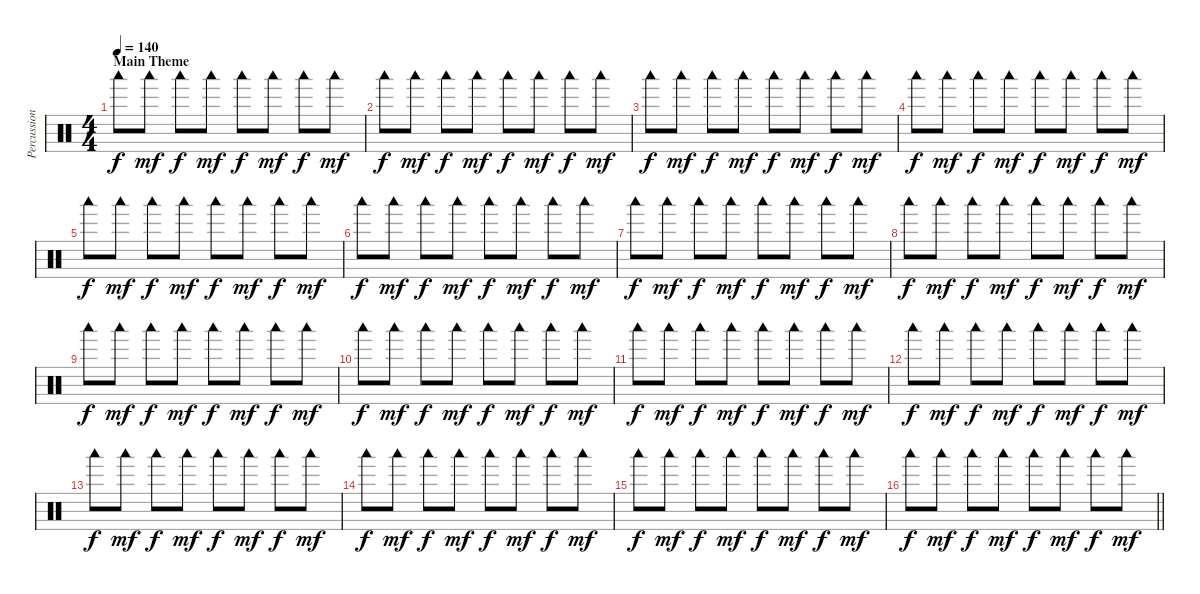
\track ("Percussions" "Percussion") {instrument percussion}
\staff {score}
\articulation defaults
\ts (4 4)
\section ("" "Main Theme")
\tempo 140
\clef neutral
\ks c "Woodblock low (hit)".8{dy f volume 10} "Woodblock low (hit)".8{dy mf} "Woodblock low (hit)".8{dy f} "Woodblock low (hit)".8{dy mf} "Woodblock low (hit)".8{dy f} "Woodblock low (hit)".8{dy mf} "Woodblock low (hit)".8{dy f} "Woodblock low (hit)".8{dy mf}
|
"Woodblock low (hit)".8{dy f} "Woodblock low (hit)".8{dy mf} "Woodblock low (hit)".8{dy f} "Woodblock low (hit)".8{dy mf} "Woodblock low (hit)".8{dy f} "Woodblock low (hit)".8{dy mf} "Woodblock low (hit)".8{dy f} "Woodblock low (hit)".8{dy mf} |
"Woodblock low (hit)".8{dy f} "Woodblock low (hit)".8{dy mf} "Woodblock low (hit)".8{dy f} "Woodblock low (hit)".8{dy mf} "Woodblock low (hit)".8{dy f} "Woodblock low (hit)".8{dy mf} "Woodblock low (hit)".8{dy f} "Woodblock low (hit)".8{dy mf} |
"Woodblock low (hit)".8{dy f} "Woodblock low (hit)".8{dy mf} "Woodblock low (hit)".8{dy f} "Woodblock low (hit)".8{dy mf} "Woodblock low (hit)".8{dy f} "Woodblock low (hit)".8{dy mf} "Woodblock low (hit)".8{dy f} "Woodblock low (hit)".8{dy mf} |
"Woodblock low (hit)".8{dy f} "Woodblock low (hit)".8{dy mf} "Woodblock low (hit)".8{dy f} "Woodblock low (hit)".8{dy mf} "Woodblock low (hit)".8{dy f} "Woodblock low (hit)".8{dy mf} "Woodblock low (hit)".8{dy f} "Woodblock low (hit)".8{dy mf} |
"Woodblock low (hit)".8{dy f} "Woodblock low (hit)".8{dy mf} "Woodblock low (hit)".8{dy f} "Woodblock low (hit)".8{dy mf} "Woodblock low (hit)".8{dy f} "Woodblock low (hit)".8{dy mf} "Woodblock low (hit)".8{dy f} "Woodblock low (hit)".8{dy mf} |
"Woodblock low (hit)".8{dy f} "Woodblock low (hit)".8{dy mf} "Woodblock low (hit)".8{dy f} "Woodblock low (hit)".8{dy mf} "Woodblock low (hit)".8{dy f} "Woodblock low (hit)".8{dy mf} "Woodblock low (hit)".8{dy f} "Woodblock low (hit)".8{dy mf} |
"Woodblock low (hit)".8{dy f} "Woodblock low (hit)".8{dy mf} "Woodblock low (hit)".8{dy f} "Woodblock low (hit)".8{dy mf} "Woodblock low (hit)".8{dy f} "Woodblock low (hit)".8{dy mf} "Woodblock low (hit)".8{dy f} "Woodblock low (hit)".8{dy mf} |
"Woodblock low (hit)".8{dy f} "Woodblock low (hit)".8{dy mf} "Woodblock low (hit)".8{dy f} "Woodblock low (hit)".8{dy mf} "Woodblock low (hit)".8{dy f} "Woodblock low (hit)".8{dy mf} "Woodblock low (hit)".8{dy f} "Woodblock low (hit)".8{dy mf} |
"Woodblock low (hit)".8{dy f} "Woodblock low (hit)".8{dy mf} "Woodblock low (hit)".8{dy f} "Woodblock low (hit)".8{dy mf} "Woodblock low (hit)".8{dy f} "Woodblock low (hit)".8{dy mf} "Woodblock low (hit)".8{dy f} "Woodblock low (hit)".8{dy mf} |
"Woodblock low (hit)".8{dy f} "Woodblock low (hit)".8{dy mf} "Woodblock low (hit)".8{dy f} "Woodblock low (hit)".8{dy mf} "Woodblock low (hit)".8{dy f} "Woodblock low (hit)".8{dy mf} "Woodblock low (hit)".8{dy f} "Woodblock low (hit)".8{dy mf} |
"Woodblock low (hit)".8{dy f} "Woodblock low (hit)".8{dy mf} "Woodblock low (hit)".8{dy f} "Woodblock low (hit)".8{dy mf} "Woodblock low (hit)".8{dy f} "Woodblock low (hit)".8{dy mf} "Woodblock low (hit)".8{dy f} "Woodblock low (hit)".8{dy mf} |
"Woodblock low (hit)".8{dy f} "Woodblock low (hit)".8{dy mf} "Woodblock low (hit)".8{dy f} "Woodblock low (hit)".8{dy mf} "Woodblock low (hit)".8{dy f} "Woodblock low (hit)".8{dy mf} "Woodblock low (hit)".8{dy f} "Woodblock low (hit)".8{dy mf} |
"Woodblock low (hit)".8{dy f} "Woodblock low (hit)".8{dy mf} "Woodblock low (hit)".8{dy f} "Woodblock low (hit)".8{dy mf} "Woodblock low (hit)".8{dy f} "Woodblock low (hit)".8{dy mf} "Woodblock low (hit)".8{dy f} "Woodblock low (hit)".8{dy mf} |
"Woodblock low (hit)".8{dy f} "Woodblock low (hit)".8{dy mf} "Woodblock low (hit)".8{dy f} "Woodblock low (hit)".8{dy mf} "Woodblock low (hit)".8{dy f} "Woodblock low (hit)".8{dy mf} "Woodblock low (hit)".8{dy f} "Woodblock low (hit)".8{dy mf} |
\barLineRight lightlight "Woodblock low (hit)".8{dy f} "Woodblock low (hit)".8{dy mf} "Woodblock low (hit)".8{dy f} "Woodblock low (hit)".8{dy mf} "Woodblock low (hit)".8{dy f} "Woodblock low (hit)".8{dy mf} "Woodblock low (hit)".8{dy f} "Woodblock low (hit)".8{dy mf}
